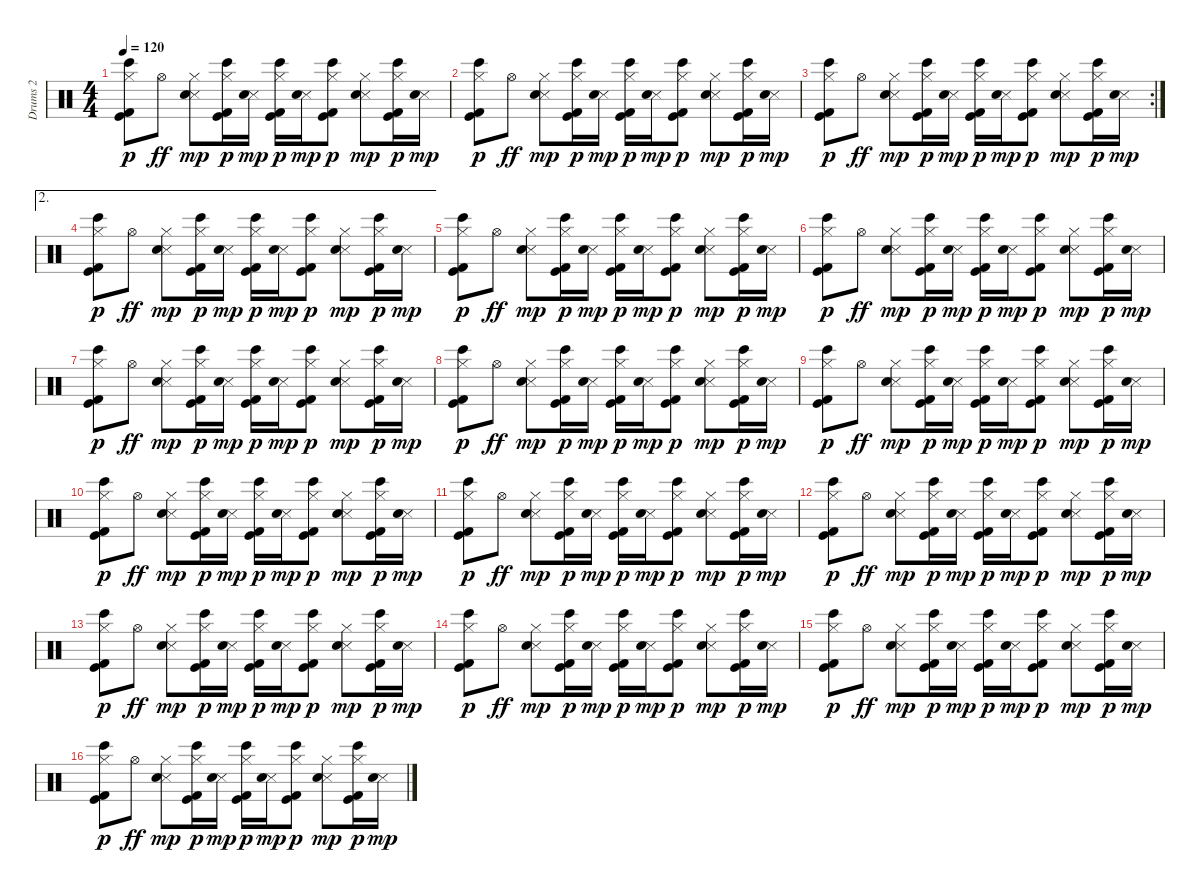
\track ("Drums 2" "Drums 2") {instrument percussion}
\staff {score}
\articulation defaults
\ts (4 4)
\tempo 120
\clef neutral
\ks c
("Hi-Hat (closed)" "Bongo High (hit)" "Kick (hit) 2" "Kick (hit)").8{dy p} "Hi-Hat (open)".8{dy ff} ("Hi-Hat (closed)" "Metronome (hit)" "Electric Snare (hit)").8{dy mp} ("Hi-Hat (closed)" "Bongo High (hit)" "Kick (hit) 2" "Kick (hit)").16{dy p} ("Metronome (hit)" "Electric Snare (hit)").16{dy mp} ("Hi-Hat (closed)" "Bongo High (hit)" "Kick (hit) 2" "Kick (hit)").16{dy p} ("Metronome (hit)" "Electric Snare (hit)").16{dy mp} ("Hi-Hat (closed)" "Bongo High (hit)" "Kick (hit) 2" "Kick (hit)").8{dy p} ("Hi-Hat (closed)" "Metronome (hit)" "Electric Snare (hit)").8{dy mp} ("Hi-Hat (closed)" "Bongo High (hit)" "Kick (hit) 2" "Kick (hit)").16{dy p} ("Metronome (hit)" "Electric Snare (hit)").16{dy mp} |
("Hi-Hat (closed)" "Bongo High (hit)" "Kick (hit) 2" "Kick (hit)").8{dy p} "Hi-Hat (open)".8{dy ff} ("Hi-Hat (closed)" "Metronome (hit)" "Electric Snare (hit)").8{dy mp} ("Hi-Hat (closed)" "Bongo High (hit)" "Kick (hit) 2" "Kick (hit)").16{dy p} ("Metronome (hit)" "Electric Snare (hit)").16{dy mp} ("Hi-Hat (closed)" "Bongo High (hit)" "Kick (hit) 2" "Kick (hit)").16{dy p} ("Metronome (hit)" "Electric Snare (hit)").16{dy mp} ("Hi-Hat (closed)" "Bongo High (hit)" "Kick (hit) 2" "Kick (hit)").8{dy p} ("Hi-Hat (closed)" "Metronome (hit)" "Electric Snare (hit)").8{dy mp} ("Hi-Hat (closed)" "Bongo High (hit)" "Kick (hit) 2" "Kick (hit)").16{dy p} ("Metronome (hit)" "Electric Snare (hit)").16{dy mp} |
\rc 2
("Hi-Hat (closed)" "Bongo High (hit)" "Kick (hit) 2" "Kick (hit)").8{dy p} "Hi-Hat (open)".8{dy ff} ("Hi-Hat (closed)" "Metronome (hit)" "Electric Snare (hit)").8{dy mp} ("Hi-Hat (closed)" "Bongo High (hit)" "Kick (hit) 2" "Kick (hit)").16{dy p} ("Metronome (hit)" "Electric Snare (hit)").16{dy mp} ("Hi-Hat (closed)" "Bongo High (hit)" "Kick (hit) 2" "Kick (hit)").16{dy p} ("Metronome (hit)" "Electric Snare (hit)").16{dy mp} ("Hi-Hat (closed)" "Bongo High (hit)" "Kick (hit) 2" "Kick (hit)").8{dy p} ("Hi-Hat (closed)" "Metronome (hit)" "Electric Snare (hit)").8{dy mp} ("Hi-Hat (closed)" "Bongo High (hit)" "Kick (hit) 2" "Kick (hit)").16{dy p} ("Metronome (hit)" "Electric Snare (hit)").16{dy mp} |
\ae 2
("Hi-Hat (closed)" "Bongo High (hit)" "Kick (hit) 2" "Kick (hit)").8{dy p} "Hi-Hat (open)".8{dy ff} ("Hi-Hat (closed)" "Metronome (hit)" "Electric Snare (hit)").8{dy mp} ("Hi-Hat (closed)" "Bongo High (hit)" "Kick (hit) 2" "Kick (hit)").16{dy p} ("Metronome (hit)" "Electric Snare (hit)").16{dy mp} ("Hi-Hat (closed)" "Bongo High (hit)" "Kick (hit) 2" "Kick (hit)").16{dy p} ("Metronome (hit)" "Electric Snare (hit)").16{dy mp} ("Hi-Hat (closed)" "Bongo High (hit)" "Kick (hit) 2" "Kick (hit)").8{dy p} ("Hi-Hat (closed)" "Metronome (hit)" "Electric Snare (hit)").8{dy mp} ("Hi-Hat (closed)" "Bongo High (hit)" "Kick (hit) 2" "Kick (hit)").16{dy p} ("Metronome (hit)" "Electric Snare (hit)").16{dy mp} |
("Hi-Hat (closed)" "Bongo High (hit)" "Kick (hit) 2" "Kick (hit)").8{dy p} "Hi-Hat (open)".8{dy ff} ("Hi-Hat (closed)" "Metronome (hit)" "Electric Snare (hit)").8{dy mp} ("Hi-Hat (closed)" "Bongo High (hit)" "Kick (hit) 2" "Kick (hit)").16{dy p} ("Metronome (hit)" "Electric Snare (hit)").16{dy mp} ("Hi-Hat (closed)" "Bongo High (hit)" "Kick (hit) 2" "Kick (hit)").16{dy p} ("Metronome (hit)" "Electric Snare (hit)").16{dy mp} ("Hi-Hat (closed)" "Bongo High (hit)" "Kick (hit) 2" "Kick (hit)").8{dy p} ("Hi-Hat (closed)" "Metronome (hit)" "Electric Snare (hit)").8{dy mp} ("Hi-Hat (closed)" "Bongo High (hit)" "Kick (hit) 2" "Kick (hit)").16{dy p} ("Metronome (hit)" "Electric Snare (hit)").16{dy mp} |
("Hi-Hat (closed)" "Bongo High (hit)" "Kick (hit) 2" "Kick (hit)").8{dy p} "Hi-Hat (open)".8{dy ff} ("Hi-Hat (closed)" "Metronome (hit)" "Electric Snare (hit)").8{dy mp} ("Hi-Hat (closed)" "Bongo High (hit)" "Kick (hit) 2" "Kick (hit)").16{dy p} ("Metronome (hit)" "Electric Snare (hit)").16{dy mp} ("Hi-Hat (closed)" "Bongo High (hit)" "Kick (hit) 2" "Kick (hit)").16{dy p} ("Metronome (hit)" "Electric Snare (hit)").16{dy mp} ("Hi-Hat (closed)" "Bongo High (hit)" "Kick (hit) 2" "Kick (hit)").8{dy p} ("Hi-Hat (closed)" "Metronome (hit)" "Electric Snare (hit)").8{dy mp} ("Hi-Hat (closed)" "Bongo High (hit)" "Kick (hit) 2" "Kick (hit)").16{dy p} ("Metronome (hit)" "Electric Snare (hit)").16{dy mp} |
("Hi-Hat (closed)" "Bongo High (hit)" "Kick (hit) 2" "Kick (hit)").8{dy p} "Hi-Hat (open)".8{dy ff} ("Hi-Hat (closed)" "Metronome (hit)" "Electric Snare (hit)").8{dy mp} ("Hi-Hat (closed)" "Bongo High (hit)" "Kick (hit) 2" "Kick (hit)").16{dy p} ("Metronome (hit)" "Electric Snare (hit)").16{dy mp} ("Hi-Hat (closed)" "Bongo High (hit)" "Kick (hit) 2" "Kick (hit)").16{dy p} ("Metronome (hit)" "Electric Snare (hit)").16{dy mp} ("Hi-Hat (closed)" "Bongo High (hit)" "Kick (hit) 2" "Kick (hit)").8{dy p} ("Hi-Hat (closed)" "Metronome (hit)" "Electric Snare (hit)").8{dy mp} ("Hi-Hat (closed)" "Bongo High (hit)" "Kick (hit) 2" "Kick (hit)").16{dy p} ("Metronome (hit)" "Electric Snare (hit)").16{dy mp} |
("Hi-Hat (closed)" "Bongo High (hit)" "Kick (hit) 2" "Kick (hit)").8{dy p} "Hi-Hat (open)".8{dy ff} ("Hi-Hat (closed)" "Metronome (hit)" "Electric Snare (hit)").8{dy mp} ("Hi-Hat (closed)" "Bongo High (hit)" "Kick (hit) 2" "Kick (hit)").16{dy p} ("Metronome (hit)" "Electric Snare (hit)").16{dy mp} ("Hi-Hat (closed)" "Bongo High (hit)" "Kick (hit) 2" "Kick (hit)").16{dy p} ("Metronome (hit)" "Electric Snare (hit)").16{dy mp} ("Hi-Hat (closed)" "Bongo High (hit)" "Kick (hit) 2" "Kick (hit)").8{dy p} ("Hi-Hat (closed)" "Metronome (hit)" "Electric Snare (hit)").8{dy mp} ("Hi-Hat (closed)" "Bongo High (hit)" "Kick (hit) 2" "Kick (hit)").16{dy p} ("Metronome (hit)" "Electric Snare (hit)").16{dy mp} |
("Hi-Hat (closed)" "Bongo High (hit)" "Kick (hit) 2" "Kick (hit)").8{dy p} "Hi-Hat (open)".8{dy ff} ("Hi-Hat (closed)" "Metronome (hit)" "Electric Snare (hit)").8{dy mp} ("Hi-Hat (closed)" "Bongo High (hit)" "Kick (hit) 2" "Kick (hit)").16{dy p} ("Metronome (hit)" "Electric Snare (hit)").16{dy mp} ("Hi-Hat (closed)" "Bongo High (hit)" "Kick (hit) 2" "Kick (hit)").16{dy p} ("Metronome (hit)" "Electric Snare (hit)").16{dy mp} ("Hi-Hat (closed)" "Bongo High (hit)" "Kick (hit) 2" "Kick (hit)").8{dy p} ("Hi-Hat (closed)" "Metronome (hit)" "Electric Snare (hit)").8{dy mp} ("Hi-Hat (closed)" "Bongo High (hit)" "Kick (hit) 2" "Kick (hit)").16{dy p} ("Metronome (hit)" "Electric Snare (hit)").16{dy mp} |
("Hi-Hat (closed)" "Bongo High (hit)" "Kick (hit) 2" "Kick (hit)").8{dy p} "Hi-Hat (open)".8{dy ff} ("Hi-Hat (closed)" "Metronome (hit)" "Electric Snare (hit)").8{dy mp} ("Hi-Hat (closed)" "Bongo High (hit)" "Kick (hit) 2" "Kick (hit)").16{dy p} ("Metronome (hit)" "Electric Snare (hit)").16{dy mp} ("Hi-Hat (closed)" "Bongo High (hit)" "Kick (hit) 2" "Kick (hit)").16{dy p} ("Metronome (hit)" "Electric Snare (hit)").16{dy mp} ("Hi-Hat (closed)" "Bongo High (hit)" "Kick (hit) 2" "Kick (hit)").8{dy p} ("Hi-Hat (closed)" "Metronome (hit)" "Electric Snare (hit)").8{dy mp} ("Hi-Hat (closed)" "Bongo High (hit)" "Kick (hit) 2" "Kick (hit)").16{dy p} ("Metronome (hit)" "Electric Snare (hit)").16{dy mp} |
("Hi-Hat (closed)" "Bongo High (hit)" "Kick (hit) 2" "Kick (hit)").8{dy p} "Hi-Hat (open)".8{dy ff} ("Hi-Hat (closed)" "Metronome (hit)" "Electric Snare (hit)").8{dy mp} ("Hi-Hat (closed)" "Bongo High (hit)" "Kick (hit) 2" "Kick (hit)").16{dy p} ("Metronome (hit)" "Electric Snare (hit)").16{dy mp} ("Hi-Hat (closed)" "Bongo High (hit)" "Kick (hit) 2" "Kick (hit)").16{dy p} ("Metronome (hit)" "Electric Snare (hit)").16{dy mp} ("Hi-Hat (closed)" "Bongo High (hit)" "Kick (hit) 2" "Kick (hit)").8{dy p} ("Hi-Hat (closed)" "Metronome (hit)" "Electric Snare (hit)").8{dy mp} ("Hi-Hat (closed)" "Bongo High (hit)" "Kick (hit) 2" "Kick (hit)").16{dy p} ("Metronome (hit)" "Electric Snare (hit)").16{dy mp} |
("Hi-Hat (closed)" "Bongo High (hit)" "Kick (hit) 2" "Kick (hit)").8{dy p} "Hi-Hat (open)".8{dy ff} ("Hi-Hat (closed)" "Metronome (hit)" "Electric Snare (hit)").8{dy mp} ("Hi-Hat (closed)" "Bongo High (hit)" "Kick (hit) 2" "Kick (hit)").16{dy p} ("Metronome (hit)" "Electric Snare (hit)").16{dy mp} ("Hi-Hat (closed)" "Bongo High (hit)" "Kick (hit) 2" "Kick (hit)").16{dy p} ("Metronome (hit)" "Electric Snare (hit)").16{dy mp} ("Hi-Hat (closed)" "Bongo High (hit)" "Kick (hit) 2" "Kick (hit)").8{dy p} ("Hi-Hat (closed)" "Metronome (hit)" "Electric Snare (hit)").8{dy mp} ("Hi-Hat (closed)" "Bongo High (hit)" "Kick (hit) 2" "Kick (hit)").16{dy p} ("Metronome (hit)" "Electric Snare (hit)").16{dy mp} |
("Hi-Hat (closed)" "Bongo High (hit)" "Kick (hit) 2" "Kick (hit)").8{dy p} "Hi-Hat (open)".8{dy ff} ("Hi-Hat (closed)" "Metronome (hit)" "Electric Snare (hit)").8{dy mp} ("Hi-Hat (closed)" "Bongo High (hit)" "Kick (hit) 2" "Kick (hit)").16{dy p} ("Metronome (hit)" "Electric Snare (hit)").16{dy mp} ("Hi-Hat (closed)" "Bongo High (hit)" "Kick (hit) 2" "Kick (hit)").16{dy p} ("Metronome (hit)" "Electric Snare (hit)").16{dy mp} ("Hi-Hat (closed)" "Bongo High (hit)" "Kick (hit) 2" "Kick (hit)").8{dy p} ("Hi-Hat (closed)" "Metronome (hit)" "Electric Snare (hit)").8{dy mp} ("Hi-Hat (closed)" "Bongo High (hit)" "Kick (hit) 2" "Kick (hit)").16{dy p} ("Metronome (hit)" "Electric Snare (hit)").16{dy mp} |
("Hi-Hat (closed)" "Bongo High (hit)" "Kick (hit) 2" "Kick (hit)").8{dy p volume 10} "Hi-Hat (open)".8{dy ff} ("Hi-Hat (closed)" "Metronome (hit)" "Electric Snare (hit)").8{dy mp} ("Hi-Hat (closed)" "Bongo High (hit)" "Kick (hit) 2" "Kick (hit)").16{dy p} ("Metronome (hit)" "Electric Snare (hit)").16{dy mp} ("Hi-Hat (closed)" "Bongo High (hit)" "Kick (hit) 2" "Kick (hit)").16{dy p} ("Metronome (hit)" "Electric Snare (hit)").16{dy mp} ("Hi-Hat (closed)" "Bongo High (hit)" "Kick (hit) 2" "Kick (hit)").8{dy p} ("Hi-Hat (closed)" "Metronome (hit)" "Electric Snare (hit)").8{dy mp} ("Hi-Hat (closed)" "Bongo High (hit)" "Kick (hit) 2" "Kick (hit)").16{dy p} ("Metronome (hit)" "Electric Snare (hit)").16{dy mp} |
("Hi-Hat (closed)" "Bongo High (hit)" "Kick (hit) 2" "Kick (hit)").8{dy p volume 8} "Hi-Hat (open)".8{dy ff} ("Hi-Hat (closed)" "Metronome (hit)" "Electric Snare (hit)").8{dy mp} ("Hi-Hat (closed)" "Bongo High (hit)" "Kick (hit) 2" "Kick (hit)").16{dy p} ("Metronome (hit)" "Electric Snare (hit)").16{dy mp} ("Hi-Hat (closed)" "Bongo High (hit)" "Kick (hit) 2" "Kick (hit)").16{dy p} ("Metronome (hit)" "Electric Snare (hit)").16{dy mp} ("Hi-Hat (closed)" "Bongo High (hit)" "Kick (hit) 2" "Kick (hit)").8{dy p} ("Hi-Hat (closed)" "Metronome (hit)" "Electric Snare (hit)").8{dy mp} ("Hi-Hat (closed)" "Bongo High (hit)" "Kick (hit) 2" "Kick (hit)").16{dy p} ("Metronome (hit)" "Electric Snare (hit)").16{dy mp} |
("Hi-Hat (closed)" "Bongo High (hit)" "Kick (hit) 2" "Kick (hit)").8{dy p volume 5} "Hi-Hat (open)".8{dy ff} ("Hi-Hat (closed)" "Metronome (hit)" "Electric Snare (hit)").8{dy mp} ("Hi-Hat (closed)" "Bongo High (hit)" "Kick (hit) 2" "Kick (hit)").16{dy p} ("Metronome (hit)" "Electric Snare (hit)").16{dy mp} ("Hi-Hat (closed)" "Bongo High (hit)" "Kick (hit) 2" "Kick (hit)").16{dy p} ("Metronome (hit)" "Electric Snare (hit)").16{dy mp} ("Hi-Hat (closed)" "Bongo High (hit)" "Kick (hit) 2" "Kick (hit)").8{dy p} ("Hi-Hat (closed)" "Metronome (hit)" "Electric Snare (hit)").8{dy mp} ("Hi-Hat (closed)" "Bongo High (hit)" "Kick (hit) 2" "Kick (hit)").16{dy p} ("Metronome (hit)" "Electric Snare (hit)").16{dy mp}
